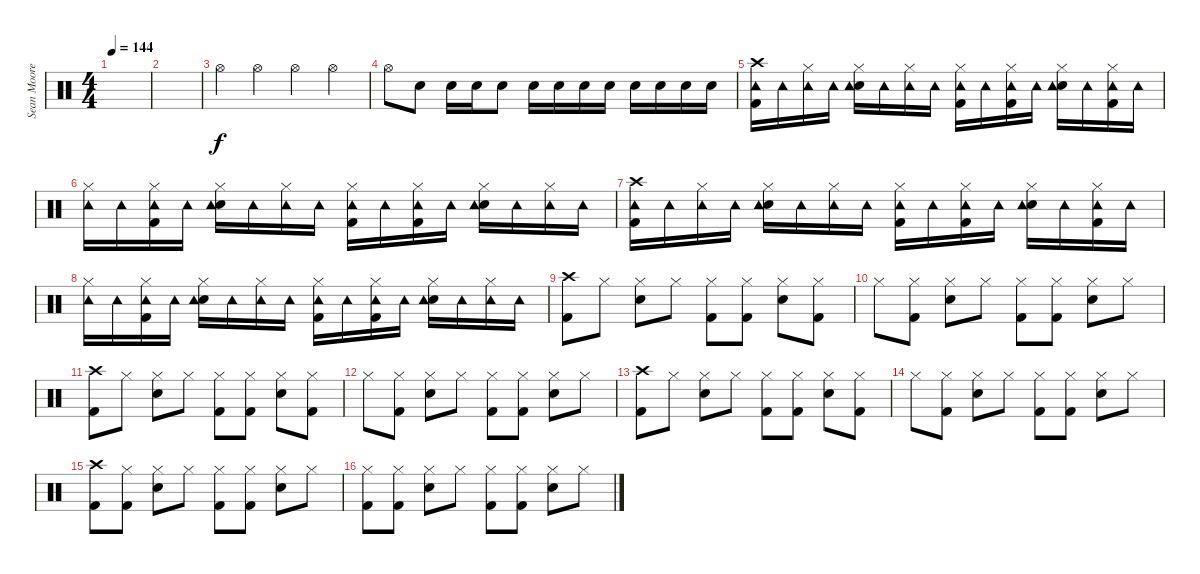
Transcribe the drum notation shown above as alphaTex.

\track ("Sean Moore" "Sean Moore") {instrument percussion}
\staff {score}
\articulation defaults
\ts (4 4)
\tempo 144
\clef neutral
\ks c
|
|
"Hi-Hat (open)".4 "Hi-Hat (open)".4 "Hi-Hat (open)".4 "Hi-Hat (open)".4 |
"Hi-Hat (open)".8 "Snare (hit) 2".8 "Snare (hit) 2".16 "Snare (hit) 2".16 "Snare (hit) 2".8 "Snare (hit) 2".16 "Snare (hit) 2".16 "Snare (hit) 2".16 "Snare (hit) 2".16 "Snare (hit) 2".16 "Snare (hit) 2".16 "Snare (hit) 2".16 "Snare (hit) 2".16 |
("Crash high (hit)" "Kick (hit) 2" "Tambourine (hit)").16 "Tambourine (hit)".16 ("Hi-Hat (closed)" "Tambourine (hit)").16 "Tambourine (hit)".16 ("Hi-Hat (closed)" "Snare (hit) 2" "Tambourine (hit)").16 "Tambourine (hit)".16 ("Hi-Hat (closed)" "Tambourine (hit)").16 "Tambourine (hit)".16 ("Hi-Hat (closed)" "Kick (hit) 2" "Tambourine (hit)").16 "Tambourine (hit)".16 ("Hi-Hat (closed)" "Kick (hit) 2" "Tambourine (hit)").16 "Tambourine (hit)".16 ("Hi-Hat (closed)" "Snare (hit) 2" "Tambourine (hit)").16 "Tambourine (hit)".16 ("Hi-Hat (closed)" "Kick (hit) 2" "Tambourine (hit)").16 "Tambourine (hit)".16 |
("Hi-Hat (closed)" "Tambourine (hit)").16 "Tambourine (hit)".16 ("Hi-Hat (closed)" "Kick (hit) 2" "Tambourine (hit)").16 "Tambourine (hit)".16 ("Hi-Hat (closed)" "Snare (hit) 2" "Tambourine (hit)").16 "Tambourine (hit)".16 ("Hi-Hat (closed)" "Tambourine (hit)").16 "Tambourine (hit)".16 ("Hi-Hat (closed)" "Kick (hit) 2" "Tambourine (hit)").16 "Tambourine (hit)".16 ("Hi-Hat (closed)" "Kick (hit) 2" "Tambourine (hit)").16 "Tambourine (hit)".16 ("Hi-Hat (closed)" "Snare (hit) 2" "Tambourine (hit)").16 "Tambourine (hit)".16 ("Hi-Hat (closed)" "Tambourine (hit)").16 "Tambourine (hit)".16 |
("Crash high (hit)" "Kick (hit) 2" "Tambourine (hit)").16 "Tambourine (hit)".16 ("Hi-Hat (closed)" "Tambourine (hit)").16 "Tambourine (hit)".16 ("Hi-Hat (closed)" "Snare (hit) 2" "Tambourine (hit)").16 "Tambourine (hit)".16 ("Hi-Hat (closed)" "Tambourine (hit)").16 "Tambourine (hit)".16 ("Hi-Hat (closed)" "Kick (hit) 2" "Tambourine (hit)").16 "Tambourine (hit)".16 ("Hi-Hat (closed)" "Kick (hit) 2" "Tambourine (hit)").16 "Tambourine (hit)".16 ("Hi-Hat (closed)" "Snare (hit) 2" "Tambourine (hit)").16 "Tambourine (hit)".16 ("Hi-Hat (closed)" "Kick (hit) 2" "Tambourine (hit)").16 "Tambourine (hit)".16 |
("Hi-Hat (closed)" "Tambourine (hit)").16 "Tambourine (hit)".16 ("Hi-Hat (closed)" "Kick (hit) 2" "Tambourine (hit)").16 "Tambourine (hit)".16 ("Hi-Hat (closed)" "Snare (hit) 2" "Tambourine (hit)").16 "Tambourine (hit)".16 ("Hi-Hat (closed)" "Tambourine (hit)").16 "Tambourine (hit)".16 ("Hi-Hat (closed)" "Kick (hit) 2" "Tambourine (hit)").16 "Tambourine (hit)".16 ("Hi-Hat (closed)" "Kick (hit) 2" "Tambourine (hit)").16 "Tambourine (hit)".16 ("Hi-Hat (closed)" "Snare (hit) 2" "Tambourine (hit)").16 "Tambourine (hit)".16 ("Hi-Hat (closed)" "Tambourine (hit)").16 "Tambourine (hit)".16 |
("Crash high (hit)" "Kick (hit) 2").8 "Hi-Hat (closed)".8 ("Hi-Hat (closed)" "Snare (hit) 2").8 "Hi-Hat (closed)".8 ("Hi-Hat (closed)" "Kick (hit) 2").8 ("Hi-Hat (closed)" "Kick (hit) 2").8 ("Hi-Hat (closed)" "Snare (hit) 2").8 ("Hi-Hat (closed)" "Kick (hit) 2").8 |
"Hi-Hat (closed)".8 ("Hi-Hat (closed)" "Kick (hit) 2").8 ("Hi-Hat (closed)" "Snare (hit) 2").8 "Hi-Hat (closed)".8 ("Hi-Hat (closed)" "Kick (hit) 2").8 ("Hi-Hat (closed)" "Kick (hit) 2").8 ("Hi-Hat (closed)" "Snare (hit) 2").8 "Hi-Hat (closed)".8 |
("Crash high (hit)" "Kick (hit) 2").8 "Hi-Hat (closed)".8 ("Hi-Hat (closed)" "Snare (hit) 2").8 "Hi-Hat (closed)".8 ("Hi-Hat (closed)" "Kick (hit) 2").8 ("Hi-Hat (closed)" "Kick (hit) 2").8 ("Hi-Hat (closed)" "Snare (hit) 2").8 ("Hi-Hat (closed)" "Kick (hit) 2").8 |
"Hi-Hat (closed)".8 ("Hi-Hat (closed)" "Kick (hit) 2").8 ("Hi-Hat (closed)" "Snare (hit) 2").8 "Hi-Hat (closed)".8 ("Hi-Hat (closed)" "Kick (hit) 2").8 ("Hi-Hat (closed)" "Kick (hit) 2").8 ("Hi-Hat (closed)" "Snare (hit) 2").8 "Hi-Hat (closed)".8 |
("Crash high (hit)" "Kick (hit) 2").8 "Hi-Hat (closed)".8 ("Hi-Hat (closed)" "Snare (hit) 2").8 "Hi-Hat (closed)".8 ("Hi-Hat (closed)" "Kick (hit) 2").8 ("Hi-Hat (closed)" "Kick (hit) 2").8 ("Hi-Hat (closed)" "Snare (hit) 2").8 ("Hi-Hat (closed)" "Kick (hit) 2").8 |
"Hi-Hat (closed)".8 ("Hi-Hat (closed)" "Kick (hit) 2").8 ("Hi-Hat (closed)" "Snare (hit) 2").8 "Hi-Hat (closed)".8 ("Hi-Hat (closed)" "Kick (hit) 2").8 ("Hi-Hat (closed)" "Kick (hit) 2").8 ("Hi-Hat (closed)" "Snare (hit) 2").8 "Hi-Hat (closed)".8 |
("Crash high (hit)" "Kick (hit) 2").8 ("Hi-Hat (closed)" "Kick (hit) 2").8 ("Hi-Hat (closed)" "Snare (hit) 2").8 "Hi-Hat (closed)".8 ("Hi-Hat (closed)" "Kick (hit) 2").8 ("Hi-Hat (closed)" "Kick (hit) 2").8 ("Hi-Hat (closed)" "Snare (hit) 2").8 "Hi-Hat (closed)".8 |
("Hi-Hat (closed)" "Kick (hit) 2").8 ("Hi-Hat (closed)" "Kick (hit) 2").8 ("Hi-Hat (closed)" "Snare (hit) 2").8 "Hi-Hat (closed)".8 ("Hi-Hat (closed)" "Kick (hit) 2").8 ("Hi-Hat (closed)" "Kick (hit) 2").8 ("Hi-Hat (closed)" "Snare (hit) 2").8 "Hi-Hat (closed)".8
